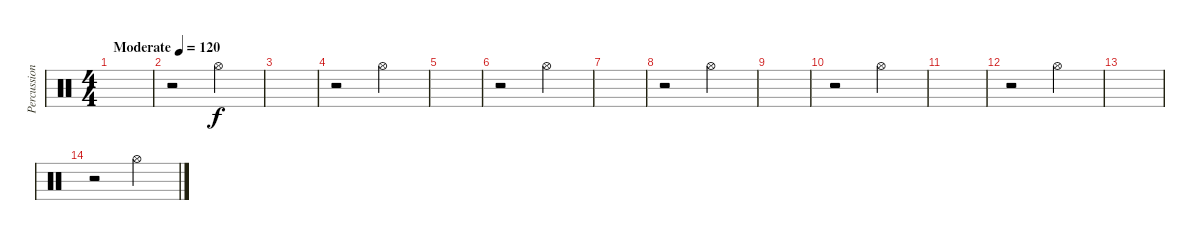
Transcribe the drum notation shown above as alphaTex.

\track ("Percussion" "Percussion") {instrument percussion}
\staff {score}
\articulation defaults
\ts (4 4)
\tempo (120 "Moderate")
\clef neutral
\ks c
|
r.2 "Hi-Hat (open)".2 |
|
r.2 "Hi-Hat (open)".2 |
|
r.2 "Hi-Hat (open)".2 |
|
r.2 "Hi-Hat (open)".2 |
|
r.2 "Hi-Hat (open)".2 |
|
r.2 "Hi-Hat (open)".2 |
|
r.2 "Hi-Hat (open)".2
